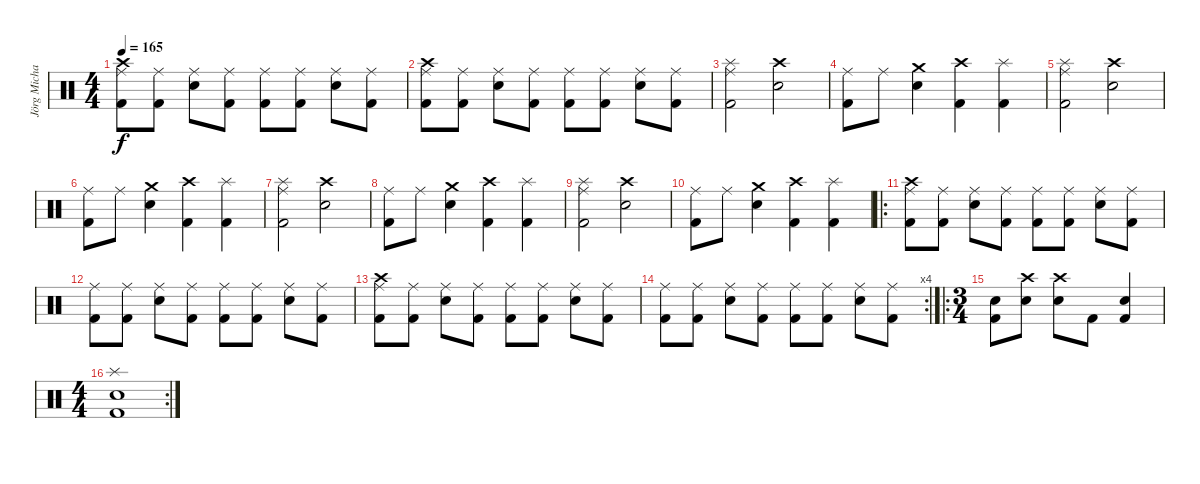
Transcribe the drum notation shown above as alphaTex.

\track ("Jörg Michael" "Jörg Micha") {instrument percussion}
\staff {score}
\articulation defaults
\ts (4 4)
\tempo 165
\clef neutral
\ks c
("Kick (hit) 2" "Ride (middle)" "Crash high (hit)").8{dy f} ("Kick (hit) 2" "Ride (middle)").8 ("Snare (hit) 2" "Ride (middle)").8 ("Kick (hit) 2" "Ride (middle)").8 ("Kick (hit) 2" "Ride (middle)").8 ("Kick (hit) 2" "Ride (middle)").8 ("Snare (hit) 2" "Ride (middle)").8 ("Kick (hit) 2" "Ride (middle)").8 |
("Kick (hit) 2" "Ride (middle)" "Crash high (hit)").8 ("Kick (hit) 2" "Ride (middle)").8 ("Snare (hit) 2" "Ride (middle)").8 ("Kick (hit) 2" "Ride (middle)").8 ("Kick (hit) 2" "Ride (middle)").8 ("Kick (hit) 2" "Ride (middle)").8 ("Snare (hit) 2" "Ride (middle)").8 ("Kick (hit) 2" "Ride (middle)").8 |
("Kick (hit) 2" "Ride (middle)" "Splash (hit)").2 ("Crash high (hit)" "Snare (hit) 2").2 |
("Kick (hit) 2" "Ride (middle)").8 "Ride (middle)".8 ("Snare (hit) 2" "Crash medium (hit)").4 ("Kick (hit) 2" "Crash high (hit)").4 ("Kick (hit) 2" "Splash (hit)").4 |
("Kick (hit) 2" "Ride (middle)" "Splash (hit)").2 ("Crash high (hit)" "Snare (hit) 2").2 |
("Kick (hit) 2" "Ride (middle)").8 "Ride (middle)".8 ("Snare (hit) 2" "Crash medium (hit)").4 ("Kick (hit) 2" "Crash high (hit)").4 ("Kick (hit) 2" "Splash (hit)").4 |
("Kick (hit) 2" "Ride (middle)" "Splash (hit)").2 ("Crash high (hit)" "Snare (hit) 2").2 |
("Kick (hit) 2" "Ride (middle)").8 "Ride (middle)".8 ("Snare (hit) 2" "Crash medium (hit)").4 ("Kick (hit) 2" "Crash high (hit)").4 ("Kick (hit) 2" "Splash (hit)").4 |
("Kick (hit) 2" "Ride (middle)" "Splash (hit)").2 ("Crash high (hit)" "Snare (hit) 2").2 |
("Kick (hit) 2" "Ride (middle)").8 "Ride (middle)".8 ("Snare (hit) 2" "Crash medium (hit)").4 ("Kick (hit) 2" "Crash high (hit)").4 ("Kick (hit) 2" "Splash (hit)").4 |
\ro
("Kick (hit) 2" "Ride (middle)" "Crash high (hit)").8 ("Kick (hit) 2" "Ride (middle)").8 ("Snare (hit) 2" "Ride (middle)").8 ("Kick (hit) 2" "Ride (middle)").8 ("Kick (hit) 2" "Ride (middle)").8 ("Kick (hit) 2" "Ride (middle)").8 ("Snare (hit) 2" "Ride (middle)").8 ("Kick (hit) 2" "Ride (middle)").8 |
("Kick (hit) 2" "Ride (middle)").8 ("Kick (hit) 2" "Ride (middle)").8 ("Snare (hit) 2" "Ride (middle)").8 ("Kick (hit) 2" "Ride (middle)").8 ("Kick (hit) 2" "Ride (middle)").8 ("Kick (hit) 2" "Ride (middle)").8 ("Snare (hit) 2" "Ride (middle)").8 ("Kick (hit) 2" "Ride (middle)").8 |
("Kick (hit) 2" "Ride (middle)" "Crash high (hit)").8 ("Kick (hit) 2" "Ride (middle)").8 ("Snare (hit) 2" "Ride (middle)").8 ("Kick (hit) 2" "Ride (middle)").8 ("Kick (hit) 2" "Ride (middle)").8 ("Kick (hit) 2" "Ride (middle)").8 ("Snare (hit) 2" "Ride (middle)").8 ("Kick (hit) 2" "Ride (middle)").8 |
\rc 4
("Kick (hit) 2" "Ride (middle)").8 ("Kick (hit) 2" "Ride (middle)").8 ("Snare (hit) 2" "Ride (middle)").8 ("Kick (hit) 2" "Ride (middle)").8 ("Kick (hit) 2" "Ride (middle)").8 ("Kick (hit) 2" "Ride (middle)").8 ("Snare (hit) 2" "Ride (middle)").8 ("Kick (hit) 2" "Ride (middle)").8 |
\ro
\ts (3 4)
("Snare (hit) 2" "Kick (hit) 2").8 ("Electric Snare (hit)" "Crash high (hit)").8 ("Crash high (hit)" "Electric Snare (hit)").8 "Kick (hit) 2".8 ("Snare (hit) 2" "Kick (hit) 2").4 |
\rc 2
\ts (4 4)
("Kick (hit) 2" "Snare (hit) 2" "Splash (hit)").1
